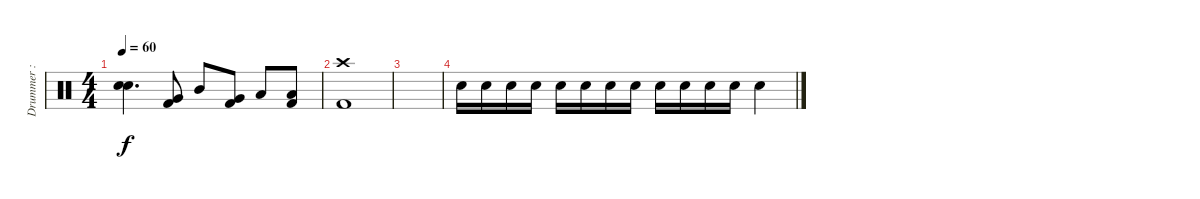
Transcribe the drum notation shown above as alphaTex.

\track ("Drummer : Tainaka Ritsu - San" "Drummer : ") {instrument percussion}
\staff {score}
\articulation defaults
\ts (4 4)
\tempo 60
\clef neutral
\ks c
("Snare (hit)"{t} "Snare (hit)"{t}).4{d dy f} ("Very Low Tom (hit)" "Kick (hit) 2").8 "Mid Tom (hit)".8 ("Very Low Tom (hit)" "Kick (hit) 2").8 "Low Tom (hit)".8 ("Low Floor Tom (hit)" "Kick (hit) 2").8 |
("Crash high (hit)" "Kick (hit) 2").1 |
|
"Hand Clap (hit)".16 "Hand Clap (hit)".16 "Hand Clap (hit)".16 "Hand Clap (hit)".16 "Hand Clap (hit)".16 "Hand Clap (hit)".16 "Hand Clap (hit)".16 "Hand Clap (hit)".16 "Hand Clap (hit)".16 "Hand Clap (hit)".16 "Hand Clap (hit)".16 "Hand Clap (hit)".16 "Hand Clap (hit)".4
